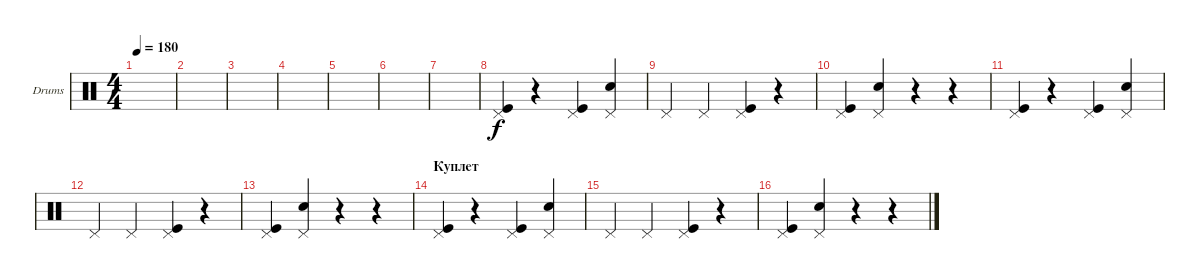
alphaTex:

\defaultSystemsLayout 4
\bracketExtendMode groupsimilarinstruments
\firstSystemTrackNameOrientation horizontal
\otherSystemsTrackNameOrientation horizontal
\track ("Георгий Гурьянов" "Drums") {instrument percussion}
\staff {score}
\articulation defaults
\ts (4 4)
\tempo 180
\clef neutral
\ks c
|
|
|
|
|
|
|
("Pedal Hi-Hat (hit)" "Kick (hit)").4 r.4 ("Pedal Hi-Hat (hit)" "Kick (hit)").4 ("Pedal Hi-Hat (hit)" "Snare (hit) 2").4 |
"Pedal Hi-Hat (hit)".4 "Pedal Hi-Hat (hit)".4 ("Pedal Hi-Hat (hit)" "Kick (hit)").4 r.4 |
("Pedal Hi-Hat (hit)" "Kick (hit)").4 ("Pedal Hi-Hat (hit)" "Snare (hit) 2").4 r.4 r.4 |
("Pedal Hi-Hat (hit)" "Kick (hit)").4 r.4 ("Pedal Hi-Hat (hit)" "Kick (hit)").4 ("Pedal Hi-Hat (hit)" "Snare (hit) 2").4 |
"Pedal Hi-Hat (hit)".4 "Pedal Hi-Hat (hit)".4 ("Pedal Hi-Hat (hit)" "Kick (hit)").4 r.4 |
("Pedal Hi-Hat (hit)" "Kick (hit)").4 ("Pedal Hi-Hat (hit)" "Snare (hit) 2").4 r.4 r.4 |
\section ("" "Куплет")
("Pedal Hi-Hat (hit)" "Kick (hit)").4 r.4 ("Pedal Hi-Hat (hit)" "Kick (hit)").4 ("Pedal Hi-Hat (hit)" "Snare (hit) 2").4 |
"Pedal Hi-Hat (hit)".4 "Pedal Hi-Hat (hit)".4 ("Pedal Hi-Hat (hit)" "Kick (hit)").4 r.4 |
("Pedal Hi-Hat (hit)" "Kick (hit)").4 ("Pedal Hi-Hat (hit)" "Snare (hit) 2").4 r.4 r.4
